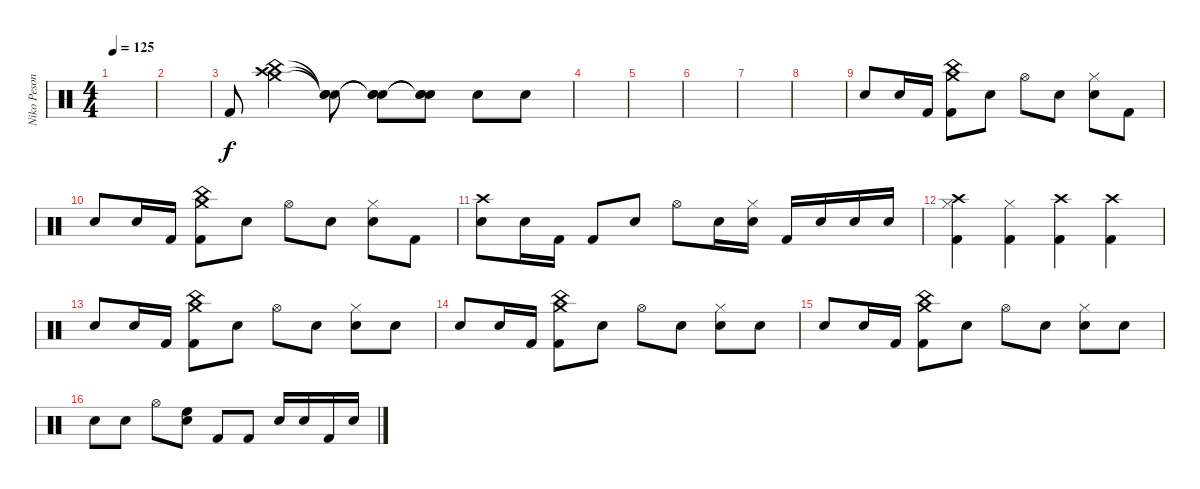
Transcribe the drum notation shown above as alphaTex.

\track ("Niko Pesonen" "Niko Peson") {instrument percussion}
\staff {score}
\articulation defaults
\ts (4 4)
\tempo 125
\clef neutral
\ks c
|
|
"Kick (hit) 2".8 ("Crash high (hit)" "Crash medium (hit)" "China (hit)").4 ("Snare (hit)"{t} "Snare (hit)"{t} "Snare (hit)"{t}).8 ("Snare (hit)"{t} "Snare (hit)"{t} "Snare (hit)"{t}).8 ("Snare (hit)"{t} "Snare (hit)"{t} "Snare (hit)"{t}).8 "Snare (hit)"{x}.8 "Snare (hit)"{x}.8 |
|
|
|
|
|
"Snare (hit) 2".8 "Snare (hit) 2".16 "Kick (hit) 2".16 ("China (hit)" "Crash medium (hit)" "Kick (hit) 2").8 "Snare (hit) 2".8 "Hi-Hat (open)".8 "Snare (hit) 2".8 ("Hi-Hat (closed)" "Snare (hit) 2").8 "Kick (hit) 2".8 |
"Snare (hit) 2".8 "Snare (hit) 2".16 "Kick (hit) 2".16 ("China (hit)" "Crash medium (hit)" "Kick (hit) 2").8 "Snare (hit) 2".8 "Hi-Hat (open)".8 "Snare (hit) 2".8 ("Hi-Hat (closed)" "Snare (hit) 2").8 "Kick (hit) 2".8 |
("Crash high (hit)" "Snare (hit) 2").8 "Snare (hit) 2".16 "Kick (hit) 2".16 "Kick (hit) 2".8 "Snare (hit) 2".8 "Hi-Hat (open)".8 "Snare (hit) 2".16 ("Hi-Hat (closed)" "Snare (hit) 2").16 "Kick (hit) 2".16 "Snare (hit) 2".16 "Snare (hit) 2".16 "Snare (hit) 2".16 |
("Crash high (hit)" "Hi-Hat (closed)" "Kick (hit) 2").4 ("Hi-Hat (closed)" "Kick (hit) 2").4 ("Crash high (hit)" "Kick (hit) 2").4 ("Crash high (hit)" "Kick (hit) 2").4 |
"Snare (hit) 2".8 "Snare (hit) 2".16 "Kick (hit) 2".16 ("China (hit)" "Crash medium (hit)" "Kick (hit) 2").8 "Snare (hit) 2".8 "Hi-Hat (open)".8 "Snare (hit) 2".8 ("Hi-Hat (closed)" "Snare (hit) 2").8 "Snare (hit) 2".8 |
"Snare (hit) 2".8 "Snare (hit) 2".16 "Kick (hit) 2".16 ("China (hit)" "Crash medium (hit)" "Kick (hit) 2").8 "Snare (hit) 2".8 "Hi-Hat (open)".8 "Snare (hit) 2".8 ("Hi-Hat (closed)" "Snare (hit) 2").8 "Snare (hit) 2".8 |
"Snare (hit) 2".8 "Snare (hit) 2".16 "Kick (hit) 2".16 ("China (hit)" "Crash medium (hit)" "Kick (hit) 2").8 "Snare (hit) 2".8 "Hi-Hat (open)".8 "Snare (hit) 2".8 ("Hi-Hat (closed)" "Snare (hit) 2").8 "Snare (hit) 2".8 |
"Snare (hit) 2".8 "Snare (hit) 2".8 "Hi-Hat (open)".8 ("High Floor Tom (hit)" "Snare (hit) 2").8 "Kick (hit) 2".8 "Kick (hit) 2".8 "Snare (hit) 2".16 "Snare (hit) 2".16 "Kick (hit) 2".16 "Snare (hit) 2".16
